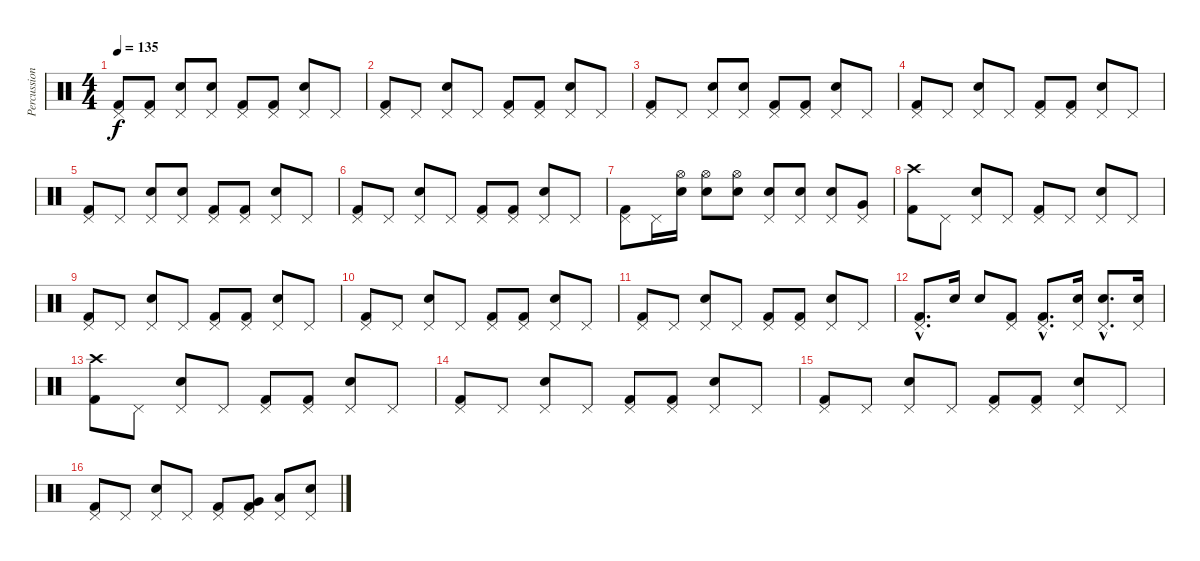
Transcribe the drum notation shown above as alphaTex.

\track ("Percussion" "Percussion") {instrument percussion}
\staff {score}
\articulation defaults
\ts (4 4)
\tempo 135
\clef neutral
\ks c
("Pedal Hi-Hat (hit)" "Kick (hit) 2").8{dy f} ("Pedal Hi-Hat (hit)" "Kick (hit) 2").8 ("Pedal Hi-Hat (hit)" "Snare (hit) 2").8 ("Pedal Hi-Hat (hit)" "Snare (hit) 2").8 ("Pedal Hi-Hat (hit)" "Kick (hit) 2").8 ("Pedal Hi-Hat (hit)" "Kick (hit) 2").8 ("Pedal Hi-Hat (hit)" "Snare (hit) 2").8 "Pedal Hi-Hat (hit)".8 |
("Pedal Hi-Hat (hit)" "Kick (hit) 2").8 "Pedal Hi-Hat (hit)".8 ("Pedal Hi-Hat (hit)" "Snare (hit) 2").8 "Pedal Hi-Hat (hit)".8 ("Pedal Hi-Hat (hit)" "Kick (hit) 2").8 ("Pedal Hi-Hat (hit)" "Kick (hit) 2").8 ("Pedal Hi-Hat (hit)" "Snare (hit) 2").8 "Pedal Hi-Hat (hit)".8 |
("Pedal Hi-Hat (hit)" "Kick (hit) 2").8 "Pedal Hi-Hat (hit)".8 ("Pedal Hi-Hat (hit)" "Snare (hit) 2").8 ("Pedal Hi-Hat (hit)" "Snare (hit) 2").8 ("Pedal Hi-Hat (hit)" "Kick (hit) 2").8 ("Pedal Hi-Hat (hit)" "Kick (hit) 2").8 ("Pedal Hi-Hat (hit)" "Snare (hit) 2").8 "Pedal Hi-Hat (hit)".8 |
("Pedal Hi-Hat (hit)" "Kick (hit) 2").8 "Pedal Hi-Hat (hit)".8 ("Pedal Hi-Hat (hit)" "Snare (hit) 2").8 "Pedal Hi-Hat (hit)".8 ("Pedal Hi-Hat (hit)" "Kick (hit) 2").8 ("Pedal Hi-Hat (hit)" "Kick (hit) 2").8 ("Pedal Hi-Hat (hit)" "Snare (hit) 2").8 "Pedal Hi-Hat (hit)".8 |
("Pedal Hi-Hat (hit)" "Kick (hit) 2").8 "Pedal Hi-Hat (hit)".8 ("Pedal Hi-Hat (hit)" "Snare (hit) 2").8 ("Pedal Hi-Hat (hit)" "Snare (hit) 2").8 ("Pedal Hi-Hat (hit)" "Kick (hit) 2").8 ("Pedal Hi-Hat (hit)" "Kick (hit) 2").8 ("Pedal Hi-Hat (hit)" "Snare (hit) 2").8 "Pedal Hi-Hat (hit)".8 |
("Pedal Hi-Hat (hit)" "Kick (hit) 2").8 "Pedal Hi-Hat (hit)".8 ("Pedal Hi-Hat (hit)" "Snare (hit) 2").8 "Pedal Hi-Hat (hit)".8 ("Pedal Hi-Hat (hit)" "Kick (hit) 2").8 ("Pedal Hi-Hat (hit)" "Kick (hit) 2").8 ("Pedal Hi-Hat (hit)" "Snare (hit) 2").8 "Pedal Hi-Hat (hit)".8 |
("Pedal Hi-Hat (hit)" "Kick (hit) 2").8 "Pedal Hi-Hat (hit)".16 ("Hi-Hat (open)" "Snare (hit) 2").16 ("Hi-Hat (open)" "Snare (hit) 2").8 ("Hi-Hat (open)" "Snare (hit) 2").8 ("Pedal Hi-Hat (hit)" "Snare (hit) 2").8 ("Pedal Hi-Hat (hit)" "Snare (hit) 2").8 ("Pedal Hi-Hat (hit)" "Snare (hit) 2").8 ("Pedal Hi-Hat (hit)" "Very Low Tom (hit)").8 |
("Crash high (hit)" "Kick (hit) 2").8 "Pedal Hi-Hat (hit)".8 ("Pedal Hi-Hat (hit)" "Snare (hit) 2").8 "Pedal Hi-Hat (hit)".8 ("Pedal Hi-Hat (hit)" "Kick (hit) 2").8 "Pedal Hi-Hat (hit)".8 ("Pedal Hi-Hat (hit)" "Snare (hit) 2").8 "Pedal Hi-Hat (hit)".8 |
("Pedal Hi-Hat (hit)" "Kick (hit) 2").8 "Pedal Hi-Hat (hit)".8 ("Pedal Hi-Hat (hit)" "Snare (hit) 2").8 "Pedal Hi-Hat (hit)".8 ("Pedal Hi-Hat (hit)" "Kick (hit) 2").8 ("Pedal Hi-Hat (hit)" "Kick (hit) 2").8 ("Pedal Hi-Hat (hit)" "Snare (hit) 2").8 "Pedal Hi-Hat (hit)".8 |
("Pedal Hi-Hat (hit)" "Kick (hit) 2").8 "Pedal Hi-Hat (hit)".8 ("Pedal Hi-Hat (hit)" "Snare (hit) 2").8 "Pedal Hi-Hat (hit)".8 ("Pedal Hi-Hat (hit)" "Kick (hit) 2").8 ("Pedal Hi-Hat (hit)" "Kick (hit) 2").8 ("Pedal Hi-Hat (hit)" "Snare (hit) 2").8 "Pedal Hi-Hat (hit)".8 |
("Pedal Hi-Hat (hit)" "Kick (hit) 2").8 "Pedal Hi-Hat (hit)".8 ("Pedal Hi-Hat (hit)" "Snare (hit) 2").8 "Pedal Hi-Hat (hit)".8 ("Pedal Hi-Hat (hit)" "Kick (hit) 2").8 ("Pedal Hi-Hat (hit)" "Kick (hit) 2").8 ("Pedal Hi-Hat (hit)" "Snare (hit) 2").8 "Pedal Hi-Hat (hit)".8 |
("Pedal Hi-Hat (hit)"{hac} "Kick (hit) 2"{hac}).8{d} "Snare (hit) 2".16 "Snare (hit) 2".8 ("Pedal Hi-Hat (hit)" "Kick (hit) 2").8 ("Pedal Hi-Hat (hit)"{hac} "Kick (hit) 2"{hac}).8{d} ("Pedal Hi-Hat (hit)" "Snare (hit) 2").16 ("Pedal Hi-Hat (hit)"{hac} "Snare (hit) 2"{hac}).8{d} ("Pedal Hi-Hat (hit)" "Snare (hit) 2").16 |
("Crash high (hit)" "Kick (hit) 2").8 "Pedal Hi-Hat (hit)".8 ("Pedal Hi-Hat (hit)" "Snare (hit) 2").8 "Pedal Hi-Hat (hit)".8 ("Pedal Hi-Hat (hit)" "Kick (hit) 2").8 ("Pedal Hi-Hat (hit)" "Kick (hit) 2").8 ("Pedal Hi-Hat (hit)" "Snare (hit) 2").8 "Pedal Hi-Hat (hit)".8 |
("Pedal Hi-Hat (hit)" "Kick (hit) 2").8 "Pedal Hi-Hat (hit)".8 ("Pedal Hi-Hat (hit)" "Snare (hit) 2").8 "Pedal Hi-Hat (hit)".8 ("Pedal Hi-Hat (hit)" "Kick (hit) 2").8 ("Pedal Hi-Hat (hit)" "Kick (hit) 2").8 ("Pedal Hi-Hat (hit)" "Snare (hit) 2").8 "Pedal Hi-Hat (hit)".8 |
("Pedal Hi-Hat (hit)" "Kick (hit) 2").8 "Pedal Hi-Hat (hit)".8 ("Pedal Hi-Hat (hit)" "Snare (hit) 2").8 "Pedal Hi-Hat (hit)".8 ("Pedal Hi-Hat (hit)" "Kick (hit) 2").8 ("Pedal Hi-Hat (hit)" "Kick (hit) 2").8 ("Pedal Hi-Hat (hit)" "Snare (hit) 2").8 "Pedal Hi-Hat (hit)".8 |
("Pedal Hi-Hat (hit)" "Kick (hit) 2").8 "Pedal Hi-Hat (hit)".8 ("Pedal Hi-Hat (hit)" "Snare (hit) 2").8 "Pedal Hi-Hat (hit)".8 ("Pedal Hi-Hat (hit)" "Kick (hit) 2").8 ("Pedal Hi-Hat (hit)" "Very Low Tom (hit)" "Kick (hit) 2").8 ("Pedal Hi-Hat (hit)" "Low Tom (hit)").8 ("Pedal Hi-Hat (hit)" "Snare (hit) 2").8
